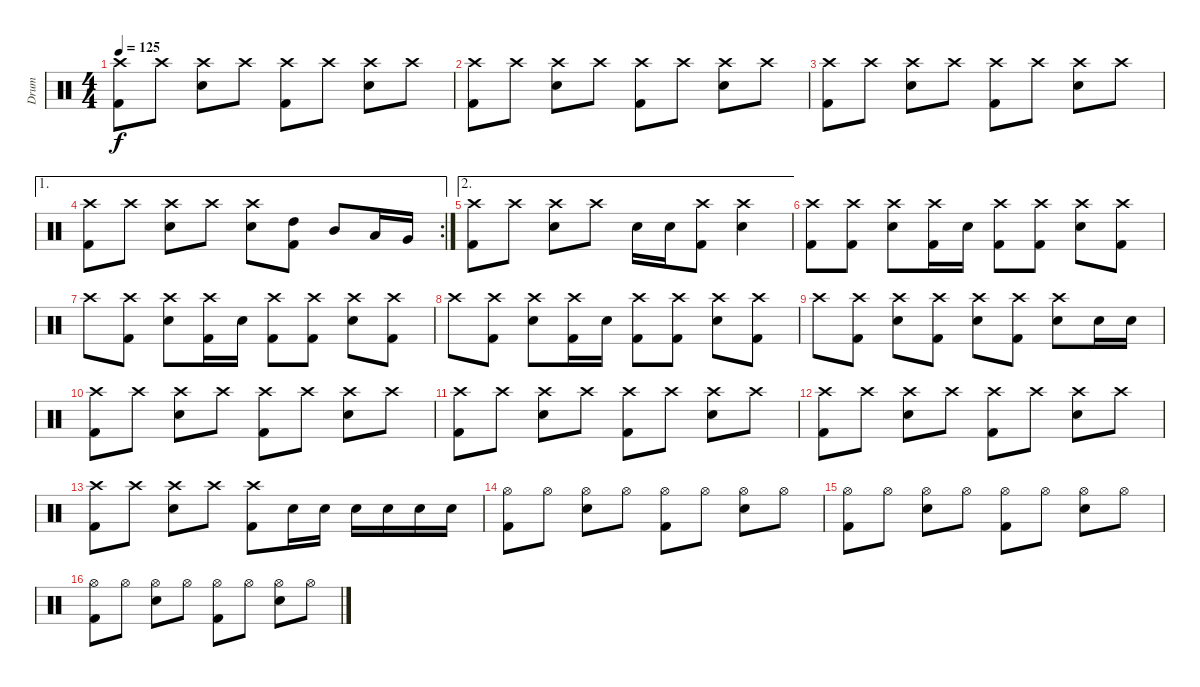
\track ("Drum" "Drum") {instrument percussion}
\staff {score}
\articulation defaults
\ts (4 4)
\tempo 125
\clef neutral
\ks c
("Kick (hit) 2" "Crash high (hit)").8{dy f} "Crash high (hit)".8 ("Electric Snare (hit)" "Crash high (hit)").8 "Crash high (hit)".8 ("Kick (hit) 2" "Crash high (hit)").8 "Crash high (hit)".8 ("Electric Snare (hit)" "Crash high (hit)").8 "Crash high (hit)".8 |
("Kick (hit) 2" "Crash high (hit)").8 "Crash high (hit)".8 ("Electric Snare (hit)" "Crash high (hit)").8 "Crash high (hit)".8 ("Kick (hit) 2" "Crash high (hit)").8 "Crash high (hit)".8 ("Electric Snare (hit)" "Crash high (hit)").8 "Crash high (hit)".8 |
("Kick (hit) 2" "Crash high (hit)").8 "Crash high (hit)".8 ("Electric Snare (hit)" "Crash high (hit)").8 "Crash high (hit)".8 ("Kick (hit) 2" "Crash high (hit)").8 "Crash high (hit)".8 ("Electric Snare (hit)" "Crash high (hit)").8 "Crash high (hit)".8 |
\ae 1
\rc 2
("Kick (hit) 2" "Crash high (hit)").8 "Crash high (hit)".8 ("Electric Snare (hit)" "Crash high (hit)").8 "Crash high (hit)".8 ("Electric Snare (hit)" "Crash high (hit)").8 ("Kick (hit) 2" "High Tom (hit)").8 "Mid Tom (hit)".8 "Low Tom (hit)".16 "Very Low Tom (hit)".16 |
\ae 2
("Kick (hit) 2" "Crash high (hit)").8 "Crash high (hit)".8 ("Electric Snare (hit)" "Crash high (hit)").8 "Crash high (hit)".8 "Electric Snare (hit)".16 "Electric Snare (hit)".16 ("Kick (hit) 2" "Crash high (hit)").8 ("Electric Snare (hit)" "Crash high (hit)").4 |
("Kick (hit) 2" "Crash high (hit)").8 ("Kick (hit) 2" "Crash high (hit)").8 ("Electric Snare (hit)" "Crash high (hit)").8 ("Kick (hit) 2" "Crash high (hit)").16 "Electric Snare (hit)".16 ("Kick (hit) 2" "Crash high (hit)").8 ("Kick (hit) 2" "Crash high (hit)").8 ("Electric Snare (hit)" "Crash high (hit)").8 ("Kick (hit) 2" "Crash high (hit)").8 |
"Crash high (hit)".8 ("Kick (hit) 2" "Crash high (hit)").8 ("Electric Snare (hit)" "Crash high (hit)").8 ("Kick (hit) 2" "Crash high (hit)").16 "Electric Snare (hit)".16 ("Kick (hit) 2" "Crash high (hit)").8 ("Kick (hit) 2" "Crash high (hit)").8 ("Electric Snare (hit)" "Crash high (hit)").8 ("Kick (hit) 2" "Crash high (hit)").8 |
"Crash high (hit)".8 ("Kick (hit) 2" "Crash high (hit)").8 ("Electric Snare (hit)" "Crash high (hit)").8 ("Kick (hit) 2" "Crash high (hit)").16 "Electric Snare (hit)".16 ("Kick (hit) 2" "Crash high (hit)").8 ("Kick (hit) 2" "Crash high (hit)").8 ("Electric Snare (hit)" "Crash high (hit)").8 ("Kick (hit) 2" "Crash high (hit)").8 |
"Crash high (hit)".8 ("Kick (hit) 2" "Crash high (hit)").8 ("Electric Snare (hit)" "Crash high (hit)").8 ("Kick (hit) 2" "Crash high (hit)").8 ("Electric Snare (hit)" "Crash high (hit)").8 ("Kick (hit) 2" "Crash high (hit)").8 ("Electric Snare (hit)" "Crash high (hit)").8 "Electric Snare (hit)".16 "Electric Snare (hit)".16 |
("Kick (hit) 2" "Crash high (hit)").8 "Crash high (hit)".8 ("Electric Snare (hit)" "Crash high (hit)").8 "Crash high (hit)".8 ("Kick (hit) 2" "Crash high (hit)").8 "Crash high (hit)".8 ("Electric Snare (hit)" "Crash high (hit)").8 "Crash high (hit)".8 |
("Kick (hit) 2" "Crash high (hit)").8 "Crash high (hit)".8 ("Electric Snare (hit)" "Crash high (hit)").8 "Crash high (hit)".8 ("Kick (hit) 2" "Crash high (hit)").8 "Crash high (hit)".8 ("Electric Snare (hit)" "Crash high (hit)").8 "Crash high (hit)".8 |
("Kick (hit) 2" "Crash high (hit)").8 "Crash high (hit)".8 ("Electric Snare (hit)" "Crash high (hit)").8 "Crash high (hit)".8 ("Kick (hit) 2" "Crash high (hit)").8 "Crash high (hit)".8 ("Electric Snare (hit)" "Crash high (hit)").8 "Crash high (hit)".8 |
("Kick (hit) 2" "Crash high (hit)").8 "Crash high (hit)".8 ("Electric Snare (hit)" "Crash high (hit)").8 "Crash high (hit)".8 ("Kick (hit) 2" "Crash high (hit)").8 "Electric Snare (hit)".16 "Electric Snare (hit)".16 "Electric Snare (hit)".16 "Electric Snare (hit)".16 "Electric Snare (hit)".16 "Electric Snare (hit)".16 |
("Kick (hit) 2" "Hi-Hat (open)").8 "Hi-Hat (open)".8 ("Electric Snare (hit)" "Hi-Hat (open)").8 "Hi-Hat (open)".8 ("Kick (hit) 2" "Hi-Hat (open)").8 "Hi-Hat (open)".8 ("Electric Snare (hit)" "Hi-Hat (open)").8 "Hi-Hat (open)".8 |
("Kick (hit) 2" "Hi-Hat (open)").8 "Hi-Hat (open)".8 ("Electric Snare (hit)" "Hi-Hat (open)").8 "Hi-Hat (open)".8 ("Kick (hit) 2" "Hi-Hat (open)").8 "Hi-Hat (open)".8 ("Electric Snare (hit)" "Hi-Hat (open)").8 "Hi-Hat (open)".8 |
("Kick (hit) 2" "Hi-Hat (open)").8 "Hi-Hat (open)".8 ("Electric Snare (hit)" "Hi-Hat (open)").8 "Hi-Hat (open)".8 ("Kick (hit) 2" "Hi-Hat (open)").8 "Hi-Hat (open)".8 ("Electric Snare (hit)" "Hi-Hat (open)").8 "Hi-Hat (open)".8
